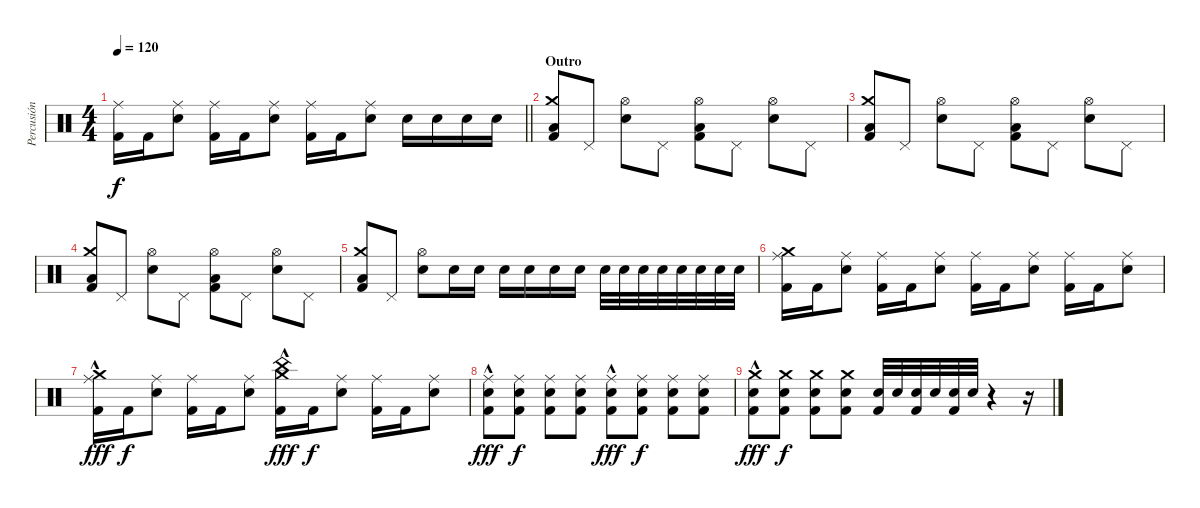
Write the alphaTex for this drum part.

\track ("Percusión" "Percusión") {instrument percussion}
\staff {score}
\articulation defaults
\ts (4 4)
\tempo 120
\clef neutral
\barLineRight lightlight
\ks c
("Ride (middle)" "Kick (hit) 2").16{dy f} "Kick (hit) 2".16 ("Ride (middle)" "Electric Snare (hit)").8 ("Ride (middle)" "Kick (hit) 2").16 "Kick (hit) 2".16 ("Ride (middle)" "Electric Snare (hit)").8 ("Ride (middle)" "Kick (hit) 2").16 "Kick (hit) 2".16 ("Ride (middle)" "Electric Snare (hit)").8 "Electric Snare (hit)".16 "Electric Snare (hit)".16 "Electric Snare (hit)".16 "Electric Snare (hit)".16 |
\section ("" "Outro")
("Crash medium (hit)" "Low Tom (hit)" "Kick (hit) 2").8 "Pedal Hi-Hat (hit)".8 ("Hi-Hat (open)" "Electric Snare (hit)").8 "Pedal Hi-Hat (hit)".8 ("Hi-Hat (open)" "Low Tom (hit)" "Kick (hit) 2").8 "Pedal Hi-Hat (hit)".8 ("Hi-Hat (open)" "Electric Snare (hit)").8 "Pedal Hi-Hat (hit)".8 |
("Crash medium (hit)" "Low Tom (hit)" "Kick (hit) 2").8 "Pedal Hi-Hat (hit)".8 ("Hi-Hat (open)" "Electric Snare (hit)").8 "Pedal Hi-Hat (hit)".8 ("Hi-Hat (open)" "Low Tom (hit)" "Kick (hit) 2").8 "Pedal Hi-Hat (hit)".8 ("Hi-Hat (open)" "Electric Snare (hit)").8 "Pedal Hi-Hat (hit)".8 |
("Crash medium (hit)" "Low Tom (hit)" "Kick (hit) 2").8 "Pedal Hi-Hat (hit)".8 ("Hi-Hat (open)" "Electric Snare (hit)").8 "Pedal Hi-Hat (hit)".8 ("Hi-Hat (open)" "Low Tom (hit)" "Kick (hit) 2").8 "Pedal Hi-Hat (hit)".8 ("Hi-Hat (open)" "Electric Snare (hit)").8 "Pedal Hi-Hat (hit)".8 |
("Crash medium (hit)" "Low Tom (hit)" "Kick (hit) 2").8 "Pedal Hi-Hat (hit)".8 ("Hi-Hat (open)" "Electric Snare (hit)").8 "Electric Snare (hit)".16 "Electric Snare (hit)".16 "Electric Snare (hit)".16 "Electric Snare (hit)".16 "Electric Snare (hit)".16 "Electric Snare (hit)".16 "Electric Snare (hit)".32 "Electric Snare (hit)".32 "Electric Snare (hit)".32 "Electric Snare (hit)".32 "Electric Snare (hit)".32 "Electric Snare (hit)".32 "Electric Snare (hit)".32 "Electric Snare (hit)".32 |
("Crash medium (hit)" "Ride (middle)" "Kick (hit) 2").16 "Kick (hit) 2".16 ("Ride (middle)" "Electric Snare (hit)").8 ("Ride (middle)" "Kick (hit) 2").16 "Kick (hit) 2".16 ("Ride (middle)" "Electric Snare (hit)").8 ("Ride (middle)" "Kick (hit) 2").16 "Kick (hit) 2".16 ("Ride (middle)" "Electric Snare (hit)").8 ("Ride (middle)" "Kick (hit) 2").16 "Kick (hit) 2".16 ("Ride (middle)" "Electric Snare (hit)").8 |
("Crash medium (hit)"{hac} "Ride (middle)"{hac} "Kick (hit) 2").16{dy fff} "Kick (hit) 2".16{dy f} ("Ride (middle)" "Electric Snare (hit)").8 ("Ride (middle)" "Kick (hit) 2").16 "Kick (hit) 2".16 ("Ride (middle)" "Electric Snare (hit)").8 ("China (hit)"{hac} "Crash medium (hit)"{hac} "Kick (hit) 2").16{dy fff} "Kick (hit) 2".16{dy f} ("Ride (middle)" "Electric Snare (hit)").8 ("Ride (middle)" "Kick (hit) 2").16 "Kick (hit) 2".16 ("Ride (middle)" "Electric Snare (hit)").8 |
("Ride (middle)"{hac} "Electric Snare (hit)" "Kick (hit) 2").8{dy fff} ("Ride (middle)" "Electric Snare (hit)" "Kick (hit) 2").8{dy f} ("Ride (middle)" "Electric Snare (hit)" "Kick (hit) 2").8 ("Ride (middle)" "Electric Snare (hit)" "Kick (hit) 2").8 ("Ride (middle)"{hac} "Electric Snare (hit)" "Kick (hit) 2").8{dy fff} ("Ride (middle)" "Electric Snare (hit)" "Kick (hit) 2").8{dy f} ("Ride (middle)" "Electric Snare (hit)" "Kick (hit) 2").8 ("Ride (middle)" "Electric Snare (hit)" "Kick (hit) 2").8 |
("Crash medium (hit)"{hac} "Electric Snare (hit)" "Kick (hit) 2").8{dy fff} ("Crash medium (hit)" "Electric Snare (hit)" "Kick (hit) 2").8{dy f} ("Crash medium (hit)" "Electric Snare (hit)" "Kick (hit) 2").8 ("Crash medium (hit)" "Electric Snare (hit)" "Kick (hit) 2").8 ("Electric Snare (hit)" "Kick (hit) 2").32 "Electric Snare (hit)".32 ("Electric Snare (hit)" "Kick (hit) 2").32 "Electric Snare (hit)".32 ("Electric Snare (hit)" "Kick (hit) 2").32 "Electric Snare (hit)".32 r.4 r.16
